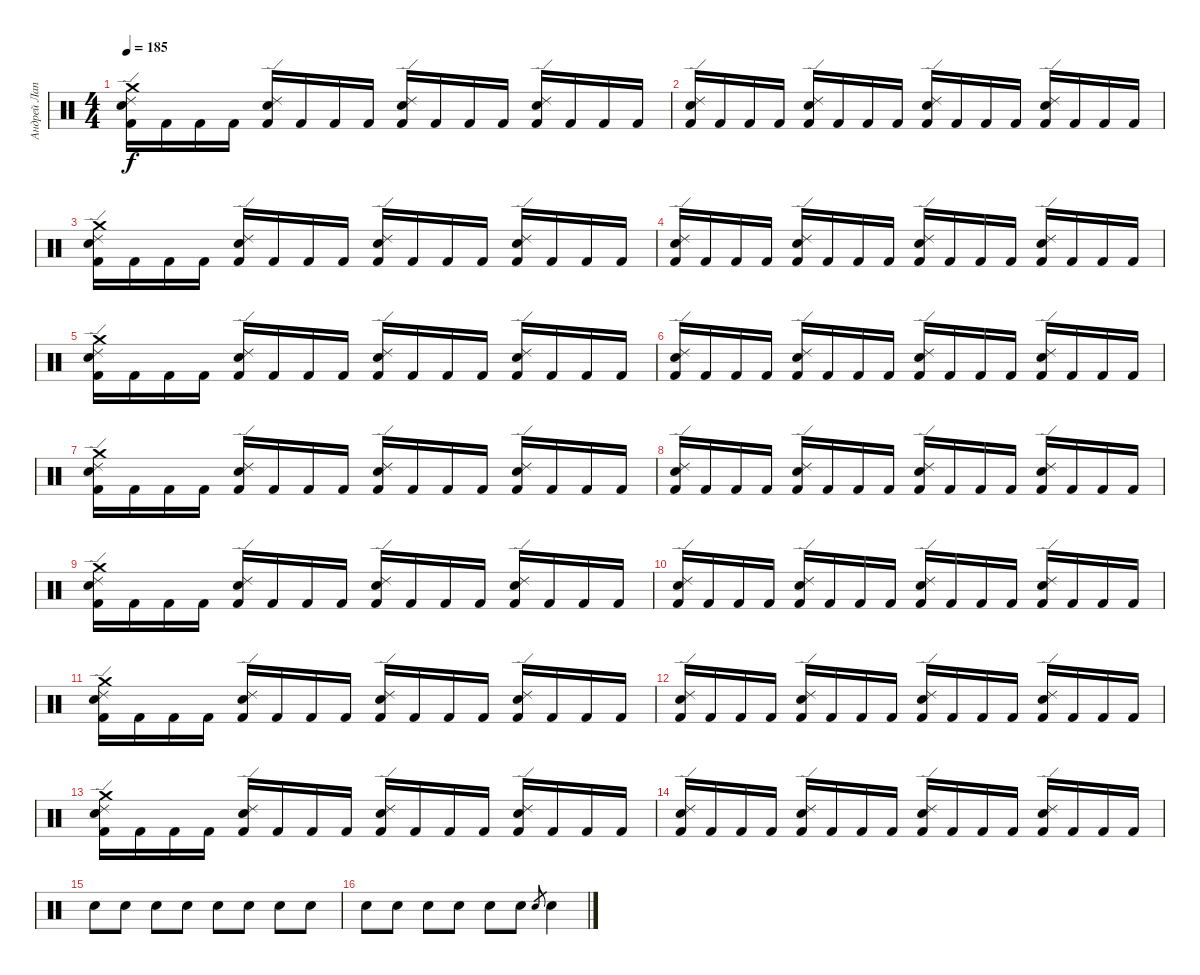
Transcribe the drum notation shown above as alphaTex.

\track ("Андрей Лаптев" "Андрей Лап") {instrument percussion}
\staff {score}
\articulation defaults
\ts (4 4)
\tempo 185
\clef neutral
\ks c
("Crash medium (hit)" "Ride (edge) 2" "Kick (hit) 2" "Electric Snare (hit)").16{dy f} "Kick (hit) 2".16 "Kick (hit) 2".16 "Kick (hit) 2".16 ("Kick (hit) 2" "Electric Snare (hit)" "Ride (edge) 2").16 "Kick (hit) 2".16 "Kick (hit) 2".16 "Kick (hit) 2".16 ("Kick (hit) 2" "Electric Snare (hit)" "Ride (edge) 2").16 "Kick (hit) 2".16 "Kick (hit) 2".16 "Kick (hit) 2".16 ("Kick (hit) 2" "Electric Snare (hit)" "Ride (edge) 2").16 "Kick (hit) 2".16 "Kick (hit) 2".16 "Kick (hit) 2".16 |
("Electric Snare (hit)" "Ride (edge) 2" "Kick (hit) 2").16 "Kick (hit) 2".16 "Kick (hit) 2".16 "Kick (hit) 2".16 ("Kick (hit) 2" "Electric Snare (hit)" "Ride (edge) 2").16 "Kick (hit) 2".16 "Kick (hit) 2".16 "Kick (hit) 2".16 ("Kick (hit) 2" "Electric Snare (hit)" "Ride (edge) 2").16 "Kick (hit) 2".16 "Kick (hit) 2".16 "Kick (hit) 2".16 ("Kick (hit) 2" "Electric Snare (hit)" "Ride (edge) 2").16 "Kick (hit) 2".16 "Kick (hit) 2".16 "Kick (hit) 2".16 |
("Crash medium (hit)" "Ride (edge) 2" "Kick (hit) 2" "Electric Snare (hit)").16 "Kick (hit) 2".16 "Kick (hit) 2".16 "Kick (hit) 2".16 ("Kick (hit) 2" "Electric Snare (hit)" "Ride (edge) 2").16 "Kick (hit) 2".16 "Kick (hit) 2".16 "Kick (hit) 2".16 ("Kick (hit) 2" "Electric Snare (hit)" "Ride (edge) 2").16 "Kick (hit) 2".16 "Kick (hit) 2".16 "Kick (hit) 2".16 ("Kick (hit) 2" "Electric Snare (hit)" "Ride (edge) 2").16 "Kick (hit) 2".16 "Kick (hit) 2".16 "Kick (hit) 2".16 |
("Electric Snare (hit)" "Ride (edge) 2" "Kick (hit) 2").16 "Kick (hit) 2".16 "Kick (hit) 2".16 "Kick (hit) 2".16 ("Kick (hit) 2" "Electric Snare (hit)" "Ride (edge) 2").16 "Kick (hit) 2".16 "Kick (hit) 2".16 "Kick (hit) 2".16 ("Kick (hit) 2" "Electric Snare (hit)" "Ride (edge) 2").16 "Kick (hit) 2".16 "Kick (hit) 2".16 "Kick (hit) 2".16 ("Kick (hit) 2" "Electric Snare (hit)" "Ride (edge) 2").16 "Kick (hit) 2".16 "Kick (hit) 2".16 "Kick (hit) 2".16 |
("Crash medium (hit)" "Ride (edge) 2" "Kick (hit) 2" "Electric Snare (hit)").16 "Kick (hit) 2".16 "Kick (hit) 2".16 "Kick (hit) 2".16 ("Kick (hit) 2" "Electric Snare (hit)" "Ride (edge) 2").16 "Kick (hit) 2".16 "Kick (hit) 2".16 "Kick (hit) 2".16 ("Kick (hit) 2" "Electric Snare (hit)" "Ride (edge) 2").16 "Kick (hit) 2".16 "Kick (hit) 2".16 "Kick (hit) 2".16 ("Kick (hit) 2" "Electric Snare (hit)" "Ride (edge) 2").16 "Kick (hit) 2".16 "Kick (hit) 2".16 "Kick (hit) 2".16 |
("Electric Snare (hit)" "Ride (edge) 2" "Kick (hit) 2").16 "Kick (hit) 2".16 "Kick (hit) 2".16 "Kick (hit) 2".16 ("Kick (hit) 2" "Electric Snare (hit)" "Ride (edge) 2").16 "Kick (hit) 2".16 "Kick (hit) 2".16 "Kick (hit) 2".16 ("Kick (hit) 2" "Electric Snare (hit)" "Ride (edge) 2").16 "Kick (hit) 2".16 "Kick (hit) 2".16 "Kick (hit) 2".16 ("Kick (hit) 2" "Electric Snare (hit)" "Ride (edge) 2").16 "Kick (hit) 2".16 "Kick (hit) 2".16 "Kick (hit) 2".16 |
("Crash medium (hit)" "Ride (edge) 2" "Kick (hit) 2" "Electric Snare (hit)").16 "Kick (hit) 2".16 "Kick (hit) 2".16 "Kick (hit) 2".16 ("Kick (hit) 2" "Electric Snare (hit)" "Ride (edge) 2").16 "Kick (hit) 2".16 "Kick (hit) 2".16 "Kick (hit) 2".16 ("Kick (hit) 2" "Electric Snare (hit)" "Ride (edge) 2").16 "Kick (hit) 2".16 "Kick (hit) 2".16 "Kick (hit) 2".16 ("Kick (hit) 2" "Electric Snare (hit)" "Ride (edge) 2").16 "Kick (hit) 2".16 "Kick (hit) 2".16 "Kick (hit) 2".16 |
("Electric Snare (hit)" "Ride (edge) 2" "Kick (hit) 2").16 "Kick (hit) 2".16 "Kick (hit) 2".16 "Kick (hit) 2".16 ("Kick (hit) 2" "Electric Snare (hit)" "Ride (edge) 2").16 "Kick (hit) 2".16 "Kick (hit) 2".16 "Kick (hit) 2".16 ("Kick (hit) 2" "Electric Snare (hit)" "Ride (edge) 2").16 "Kick (hit) 2".16 "Kick (hit) 2".16 "Kick (hit) 2".16 ("Kick (hit) 2" "Electric Snare (hit)" "Ride (edge) 2").16 "Kick (hit) 2".16 "Kick (hit) 2".16 "Kick (hit) 2".16 |
("Crash medium (hit)" "Ride (edge) 2" "Kick (hit) 2" "Electric Snare (hit)").16 "Kick (hit) 2".16 "Kick (hit) 2".16 "Kick (hit) 2".16 ("Kick (hit) 2" "Electric Snare (hit)" "Ride (edge) 2").16 "Kick (hit) 2".16 "Kick (hit) 2".16 "Kick (hit) 2".16 ("Kick (hit) 2" "Electric Snare (hit)" "Ride (edge) 2").16 "Kick (hit) 2".16 "Kick (hit) 2".16 "Kick (hit) 2".16 ("Kick (hit) 2" "Electric Snare (hit)" "Ride (edge) 2").16 "Kick (hit) 2".16 "Kick (hit) 2".16 "Kick (hit) 2".16 |
("Electric Snare (hit)" "Ride (edge) 2" "Kick (hit) 2").16 "Kick (hit) 2".16 "Kick (hit) 2".16 "Kick (hit) 2".16 ("Kick (hit) 2" "Electric Snare (hit)" "Ride (edge) 2").16 "Kick (hit) 2".16 "Kick (hit) 2".16 "Kick (hit) 2".16 ("Kick (hit) 2" "Electric Snare (hit)" "Ride (edge) 2").16 "Kick (hit) 2".16 "Kick (hit) 2".16 "Kick (hit) 2".16 ("Kick (hit) 2" "Electric Snare (hit)" "Ride (edge) 2").16 "Kick (hit) 2".16 "Kick (hit) 2".16 "Kick (hit) 2".16 |
("Crash medium (hit)" "Ride (edge) 2" "Kick (hit) 2" "Electric Snare (hit)").16 "Kick (hit) 2".16 "Kick (hit) 2".16 "Kick (hit) 2".16 ("Kick (hit) 2" "Electric Snare (hit)" "Ride (edge) 2").16 "Kick (hit) 2".16 "Kick (hit) 2".16 "Kick (hit) 2".16 ("Kick (hit) 2" "Electric Snare (hit)" "Ride (edge) 2").16 "Kick (hit) 2".16 "Kick (hit) 2".16 "Kick (hit) 2".16 ("Kick (hit) 2" "Electric Snare (hit)" "Ride (edge) 2").16 "Kick (hit) 2".16 "Kick (hit) 2".16 "Kick (hit) 2".16 |
("Electric Snare (hit)" "Ride (edge) 2" "Kick (hit) 2").16 "Kick (hit) 2".16 "Kick (hit) 2".16 "Kick (hit) 2".16 ("Kick (hit) 2" "Electric Snare (hit)" "Ride (edge) 2").16 "Kick (hit) 2".16 "Kick (hit) 2".16 "Kick (hit) 2".16 ("Kick (hit) 2" "Electric Snare (hit)" "Ride (edge) 2").16 "Kick (hit) 2".16 "Kick (hit) 2".16 "Kick (hit) 2".16 ("Kick (hit) 2" "Electric Snare (hit)" "Ride (edge) 2").16 "Kick (hit) 2".16 "Kick (hit) 2".16 "Kick (hit) 2".16 |
("Crash medium (hit)" "Ride (edge) 2" "Kick (hit) 2" "Electric Snare (hit)").16 "Kick (hit) 2".16 "Kick (hit) 2".16 "Kick (hit) 2".16 ("Kick (hit) 2" "Electric Snare (hit)" "Ride (edge) 2").16 "Kick (hit) 2".16 "Kick (hit) 2".16 "Kick (hit) 2".16 ("Kick (hit) 2" "Electric Snare (hit)" "Ride (edge) 2").16 "Kick (hit) 2".16 "Kick (hit) 2".16 "Kick (hit) 2".16 ("Kick (hit) 2" "Electric Snare (hit)" "Ride (edge) 2").16 "Kick (hit) 2".16 "Kick (hit) 2".16 "Kick (hit) 2".16 |
("Electric Snare (hit)" "Ride (edge) 2" "Kick (hit) 2").16 "Kick (hit) 2".16 "Kick (hit) 2".16 "Kick (hit) 2".16 ("Kick (hit) 2" "Electric Snare (hit)" "Ride (edge) 2").16 "Kick (hit) 2".16 "Kick (hit) 2".16 "Kick (hit) 2".16 ("Kick (hit) 2" "Electric Snare (hit)" "Ride (edge) 2").16 "Kick (hit) 2".16 "Kick (hit) 2".16 "Kick (hit) 2".16 ("Kick (hit) 2" "Electric Snare (hit)" "Ride (edge) 2").16 "Kick (hit) 2".16 "Kick (hit) 2".16 "Kick (hit) 2".16 |
"Electric Snare (hit)".8 "Electric Snare (hit)".8 "Electric Snare (hit)".8 "Electric Snare (hit)".8 "Electric Snare (hit)".8 "Electric Snare (hit)".8 "Electric Snare (hit)".8 "Electric Snare (hit)".8 |
"Electric Snare (hit)".8 "Electric Snare (hit)".8 "Electric Snare (hit)".8 "Electric Snare (hit)".8 "Electric Snare (hit)".8 "Electric Snare (hit)".8 "Electric Snare (hit)".8{gr} "Electric Snare (hit)".4
